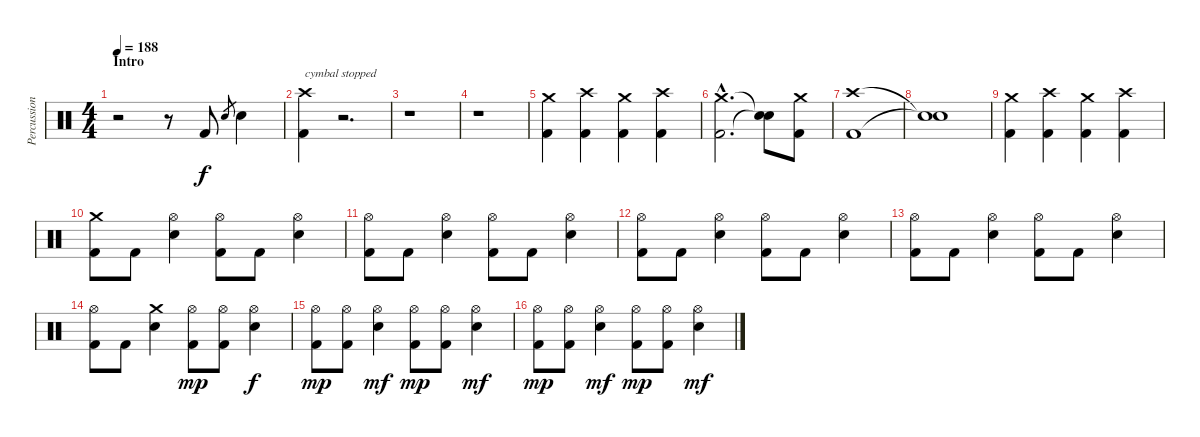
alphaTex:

\track ("Percussions" "Percussion") {instrument percussion}
\staff {score}
\articulation defaults
\ts (4 4)
\section ("" "Intro")
\tempo 188
\clef neutral
\ks c
r.2{dy f} r.8 "Kick (hit) 2".8 "Snare (hit) 2".8{gr} "Snare (hit) 2".4 |
("Crash high (hit)" "Kick (hit) 2").4{txt "cymbal stopped"} r.2{d volume 0} |
r.1 |
r.1 |
("Crash medium (hit)" "Kick (hit) 2").4{volume 14} ("Crash high (hit)" "Kick (hit) 2").4 ("Crash medium (hit)" "Kick (hit) 2").4 ("Crash high (hit)" "Kick (hit) 2").4 |
("Crash medium (hit)"{hac} "Kick (hit) 2"{hac}).2{d} ("Snare (hit)"{t} "Snare (hit)"{t}).8 ("Crash medium (hit)" "Kick (hit) 2").8 |
("Crash high (hit)" "Kick (hit) 2").1 |
("Snare (hit)"{t} "Snare (hit)"{t}).1 |
("Crash medium (hit)" "Kick (hit) 2").4 ("Crash high (hit)" "Kick (hit) 2").4 ("Crash medium (hit)" "Kick (hit) 2").4 ("Crash high (hit)" "Kick (hit) 2").4 |
("Crash medium (hit)" "Kick (hit) 2").8 "Kick (hit) 2".8 ("Hi-Hat (open)" "Snare (hit) 2").4 ("Hi-Hat (open)" "Kick (hit) 2").8 "Kick (hit) 2".8 ("Hi-Hat (open)" "Snare (hit) 2").4 |
("Hi-Hat (open)" "Kick (hit) 2").8 "Kick (hit) 2".8 ("Hi-Hat (open)" "Snare (hit) 2").4 ("Hi-Hat (open)" "Kick (hit) 2").8 "Kick (hit) 2".8 ("Hi-Hat (open)" "Snare (hit) 2").4 |
("Hi-Hat (open)" "Kick (hit) 2").8 "Kick (hit) 2".8 ("Hi-Hat (open)" "Snare (hit) 2").4 ("Hi-Hat (open)" "Kick (hit) 2").8 "Kick (hit) 2".8 ("Hi-Hat (open)" "Snare (hit) 2").4 |
("Hi-Hat (open)" "Kick (hit) 2").8 "Kick (hit) 2".8 ("Hi-Hat (open)" "Snare (hit) 2").4 ("Hi-Hat (open)" "Kick (hit) 2").8 "Kick (hit) 2".8 ("Hi-Hat (open)" "Snare (hit) 2").4 |
("Hi-Hat (open)" "Kick (hit) 2").8 "Kick (hit) 2".8 ("Crash medium (hit)" "Snare (hit) 2").4 ("Hi-Hat (open)" "Kick (hit) 2").8{dy mp} ("Hi-Hat (open)" "Kick (hit) 2").8 ("Hi-Hat (open)" "Snare (hit) 2").4{dy f} |
("Hi-Hat (open)" "Kick (hit) 2").8{dy mp} ("Hi-Hat (open)" "Kick (hit) 2").8 ("Hi-Hat (open)" "Snare (hit) 2").4{dy mf} ("Hi-Hat (open)" "Kick (hit) 2").8{dy mp} ("Hi-Hat (open)" "Kick (hit) 2").8 ("Hi-Hat (open)" "Snare (hit) 2").4{dy mf} |
("Hi-Hat (open)" "Kick (hit) 2").8{dy mp} ("Hi-Hat (open)" "Kick (hit) 2").8 ("Hi-Hat (open)" "Snare (hit) 2").4{dy mf} ("Hi-Hat (open)" "Kick (hit) 2").8{dy mp} ("Hi-Hat (open)" "Kick (hit) 2").8 ("Hi-Hat (open)" "Snare (hit) 2").4{dy mf}
